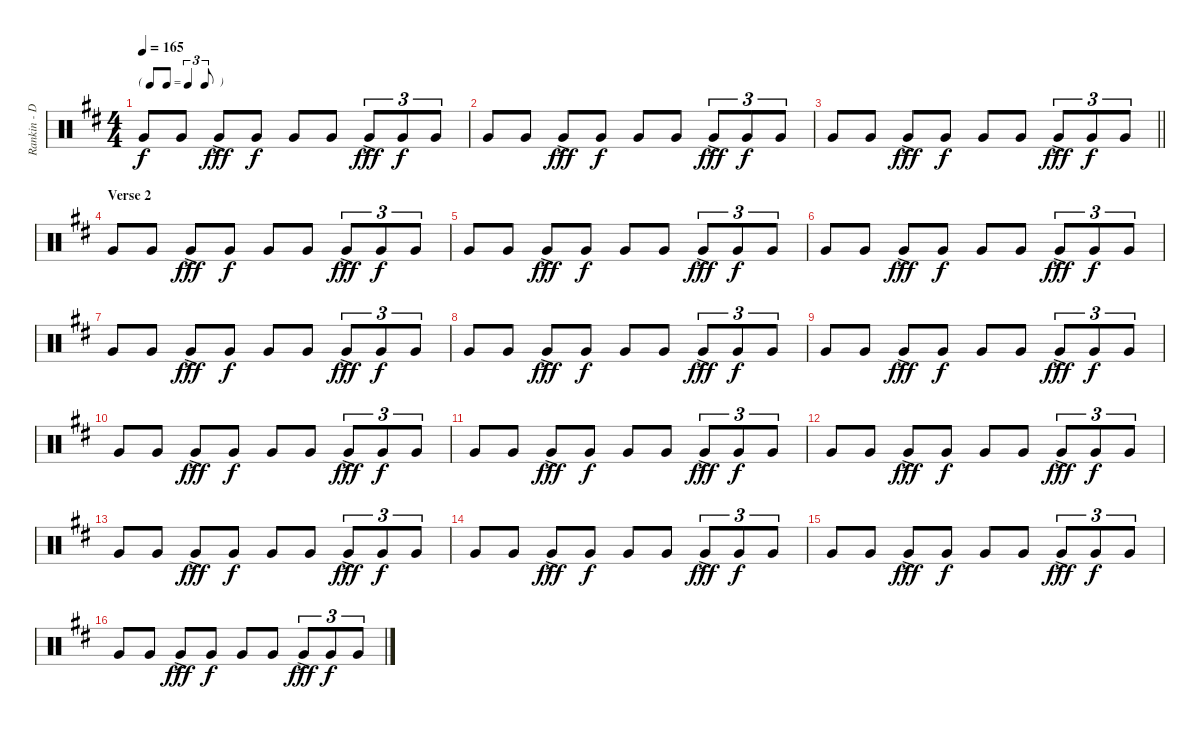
\track ("Rankin - Drums" "Rankin - D") {instrument percussion}
\staff {score}
\articulation defaults
\ts (4 4)
\tf triplet8th
\tempo 165
\clef neutral
\ks d "Very Low Tom (hit)".8{dy f} "Very Low Tom (hit)".8 "Very Low Tom (hit)"{ac}.8{dy fff} "Very Low Tom (hit)".8{dy f} "Very Low Tom (hit)".8 "Very Low Tom (hit)".8 "Very Low Tom (hit)"{ac}.8{tu (3 2) dy fff} "Very Low Tom (hit)".8{tu (3 2) dy f} "Very Low Tom (hit)".8{tu (3 2)}
|
"Very Low Tom (hit)".8 "Very Low Tom (hit)".8 "Very Low Tom (hit)"{ac}.8{dy fff} "Very Low Tom (hit)".8{dy f} "Very Low Tom (hit)".8 "Very Low Tom (hit)".8 "Very Low Tom (hit)"{ac}.8{tu (3 2) dy fff} "Very Low Tom (hit)".8{tu (3 2) dy f} "Very Low Tom (hit)".8{tu (3 2)} |
\barLineRight lightlight "Very Low Tom (hit)".8 "Very Low Tom (hit)".8 "Very Low Tom (hit)"{ac}.8{dy fff} "Very Low Tom (hit)".8{dy f} "Very Low Tom (hit)".8 "Very Low Tom (hit)".8 "Very Low Tom (hit)"{ac}.8{tu (3 2) dy fff} "Very Low Tom (hit)".8{tu (3 2) dy f} "Very Low Tom (hit)".8{tu (3 2)}
|
\section ("" "Verse 2")
"Very Low Tom (hit)".8 "Very Low Tom (hit)".8 "Very Low Tom (hit)"{ac}.8{dy fff} "Very Low Tom (hit)".8{dy f} "Very Low Tom (hit)".8 "Very Low Tom (hit)".8 "Very Low Tom (hit)"{ac}.8{tu (3 2) dy fff} "Very Low Tom (hit)".8{tu (3 2) dy f} "Very Low Tom (hit)".8{tu (3 2)} |
"Very Low Tom (hit)".8 "Very Low Tom (hit)".8 "Very Low Tom (hit)"{ac}.8{dy fff} "Very Low Tom (hit)".8{dy f} "Very Low Tom (hit)".8 "Very Low Tom (hit)".8 "Very Low Tom (hit)"{ac}.8{tu (3 2) dy fff} "Very Low Tom (hit)".8{tu (3 2) dy f} "Very Low Tom (hit)".8{tu (3 2)} |
"Very Low Tom (hit)".8 "Very Low Tom (hit)".8 "Very Low Tom (hit)"{ac}.8{dy fff} "Very Low Tom (hit)".8{dy f} "Very Low Tom (hit)".8 "Very Low Tom (hit)".8 "Very Low Tom (hit)"{ac}.8{tu (3 2) dy fff} "Very Low Tom (hit)".8{tu (3 2) dy f} "Very Low Tom (hit)".8{tu (3 2)} |
"Very Low Tom (hit)".8 "Very Low Tom (hit)".8 "Very Low Tom (hit)"{ac}.8{dy fff} "Very Low Tom (hit)".8{dy f} "Very Low Tom (hit)".8 "Very Low Tom (hit)".8 "Very Low Tom (hit)"{ac}.8{tu (3 2) dy fff} "Very Low Tom (hit)".8{tu (3 2) dy f} "Very Low Tom (hit)".8{tu (3 2)} |
"Very Low Tom (hit)".8 "Very Low Tom (hit)".8 "Very Low Tom (hit)"{ac}.8{dy fff} "Very Low Tom (hit)".8{dy f} "Very Low Tom (hit)".8 "Very Low Tom (hit)".8 "Very Low Tom (hit)"{ac}.8{tu (3 2) dy fff} "Very Low Tom (hit)".8{tu (3 2) dy f} "Very Low Tom (hit)".8{tu (3 2)} |
"Very Low Tom (hit)".8 "Very Low Tom (hit)".8 "Very Low Tom (hit)"{ac}.8{dy fff} "Very Low Tom (hit)".8{dy f} "Very Low Tom (hit)".8 "Very Low Tom (hit)".8 "Very Low Tom (hit)"{ac}.8{tu (3 2) dy fff} "Very Low Tom (hit)".8{tu (3 2) dy f} "Very Low Tom (hit)".8{tu (3 2)} |
"Very Low Tom (hit)".8 "Very Low Tom (hit)".8 "Very Low Tom (hit)"{ac}.8{dy fff} "Very Low Tom (hit)".8{dy f} "Very Low Tom (hit)".8 "Very Low Tom (hit)".8 "Very Low Tom (hit)"{ac}.8{tu (3 2) dy fff} "Very Low Tom (hit)".8{tu (3 2) dy f} "Very Low Tom (hit)".8{tu (3 2)} |
"Very Low Tom (hit)".8 "Very Low Tom (hit)".8 "Very Low Tom (hit)"{ac}.8{dy fff} "Very Low Tom (hit)".8{dy f} "Very Low Tom (hit)".8 "Very Low Tom (hit)".8 "Very Low Tom (hit)"{ac}.8{tu (3 2) dy fff} "Very Low Tom (hit)".8{tu (3 2) dy f} "Very Low Tom (hit)".8{tu (3 2)} |
"Very Low Tom (hit)".8 "Very Low Tom (hit)".8 "Very Low Tom (hit)"{ac}.8{dy fff} "Very Low Tom (hit)".8{dy f} "Very Low Tom (hit)".8 "Very Low Tom (hit)".8 "Very Low Tom (hit)"{ac}.8{tu (3 2) dy fff} "Very Low Tom (hit)".8{tu (3 2) dy f} "Very Low Tom (hit)".8{tu (3 2)} |
"Very Low Tom (hit)".8 "Very Low Tom (hit)".8 "Very Low Tom (hit)"{ac}.8{dy fff} "Very Low Tom (hit)".8{dy f} "Very Low Tom (hit)".8 "Very Low Tom (hit)".8 "Very Low Tom (hit)"{ac}.8{tu (3 2) dy fff} "Very Low Tom (hit)".8{tu (3 2) dy f} "Very Low Tom (hit)".8{tu (3 2)} |
"Very Low Tom (hit)".8 "Very Low Tom (hit)".8 "Very Low Tom (hit)"{ac}.8{dy fff} "Very Low Tom (hit)".8{dy f} "Very Low Tom (hit)".8 "Very Low Tom (hit)".8 "Very Low Tom (hit)"{ac}.8{tu (3 2) dy fff} "Very Low Tom (hit)".8{tu (3 2) dy f} "Very Low Tom (hit)".8{tu (3 2)} |
"Very Low Tom (hit)".8 "Very Low Tom (hit)".8 "Very Low Tom (hit)"{ac}.8{dy fff} "Very Low Tom (hit)".8{dy f} "Very Low Tom (hit)".8 "Very Low Tom (hit)".8 "Very Low Tom (hit)"{ac}.8{tu (3 2) dy fff} "Very Low Tom (hit)".8{tu (3 2) dy f} "Very Low Tom (hit)".8{tu (3 2)} |
"Very Low Tom (hit)".8 "Very Low Tom (hit)".8 "Very Low Tom (hit)"{ac}.8{dy fff} "Very Low Tom (hit)".8{dy f} "Very Low Tom (hit)".8 "Very Low Tom (hit)".8 "Very Low Tom (hit)"{ac}.8{tu (3 2) dy fff} "Very Low Tom (hit)".8{tu (3 2) dy f} "Very Low Tom (hit)".8{tu (3 2)}
